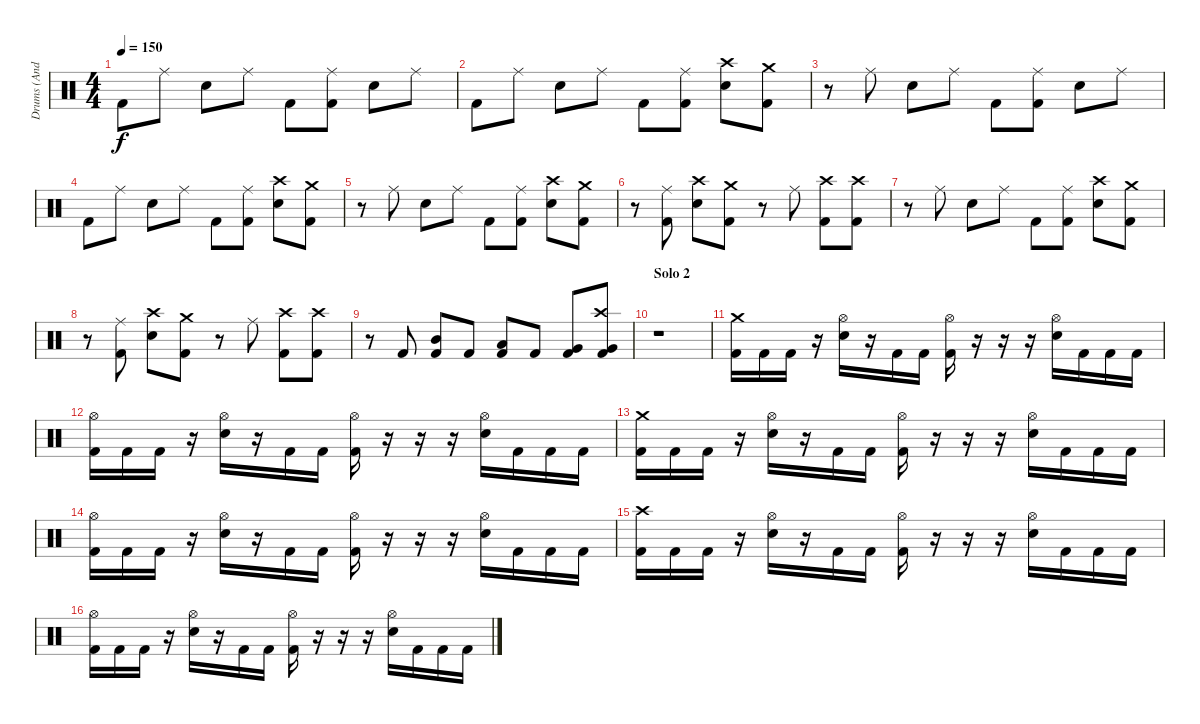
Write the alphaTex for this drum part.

\track ("Drums (Andy C)" "Drums (And") {instrument percussion}
\staff {score}
\articulation defaults
\ts (4 4)
\tempo 150
\clef neutral
\ks c "Kick (hit) 2".8{dy f} "Ride (middle)".8 "Electric Snare (hit)".8 "Ride (middle)".8 "Kick (hit) 2".8
("Ride (middle)" "Kick (hit) 2").8 "Electric Snare (hit)".8 "Ride (middle)".8 |
"Kick (hit) 2".8 "Ride (middle)".8 "Electric Snare (hit)".8 "Ride (middle)".8 "Kick (hit) 2".8 ("Ride (middle)" "Kick (hit) 2").8 ("Crash high (hit)" "Electric Snare (hit)").8 ("Crash medium (hit)" "Kick (hit) 2").8 |
r.8 "Ride (middle)".8 "Electric Snare (hit)".8 "Ride (middle)".8 "Kick (hit) 2".8 ("Ride (middle)" "Kick (hit) 2").8 "Electric Snare (hit)".8 "Ride (middle)".8 |
"Kick (hit) 2".8 "Ride (middle)".8 "Electric Snare (hit)".8 "Ride (middle)".8 "Kick (hit) 2".8 ("Ride (middle)" "Kick (hit) 2").8 ("Crash high (hit)" "Electric Snare (hit)").8 ("Crash medium (hit)" "Kick (hit) 2").8 |
r.8 "Ride (middle)".8 "Electric Snare (hit)".8 "Ride (middle)".8 "Kick (hit) 2".8 ("Ride (middle)" "Kick (hit) 2").8 ("Crash high (hit)" "Electric Snare (hit)").8 ("Crash medium (hit)" "Kick (hit) 2").8 |
r.8 ("Ride (middle)" "Kick (hit) 2").8 ("Crash high (hit)" "Electric Snare (hit)").8 ("Crash medium (hit)" "Kick (hit) 2").8 r.8 "Ride (middle)".8 ("Crash high (hit)" "Kick (hit) 2").8 ("Crash high (hit)" "Kick (hit) 2").8 |
r.8 "Ride (middle)".8 "Electric Snare (hit)".8 "Ride (middle)".8 "Kick (hit) 2".8 ("Ride (middle)" "Kick (hit) 2").8 ("Crash high (hit)" "Electric Snare (hit)").8 ("Crash medium (hit)" "Kick (hit) 2").8 |
r.8 ("Ride (middle)" "Kick (hit) 2").8 ("Crash high (hit)" "Electric Snare (hit)").8 ("Crash medium (hit)" "Kick (hit) 2").8 r.8 "Ride (middle)".8 ("Crash high (hit)" "Kick (hit) 2").8 ("Crash high (hit)" "Kick (hit) 2").8 |
r.8 "Kick (hit) 2".8 ("Mid Tom (hit)" "Kick (hit) 2").8 "Kick (hit) 2".8 ("Low Tom (hit)" "Kick (hit) 2").8 "Kick (hit) 2".8 ("Very Low Tom (hit)" "Kick (hit) 2").8 ("Crash high (hit)" "Very Low Tom (hit)" "Kick (hit) 2").8 |
\section ("" "Solo 2")
r.1 |
("Crash medium (hit)" "Kick (hit) 2").16 "Kick (hit) 2".16 "Kick (hit) 2".16 r.16 ("Hi-Hat (open)" "Electric Snare (hit)").16 r.16 "Kick (hit) 2".16 "Kick (hit) 2".16 ("Hi-Hat (open)" "Kick (hit) 2").16 r.16 r.16 r.16 ("Hi-Hat (open)" "Electric Snare (hit)").16 "Kick (hit) 2".16 "Kick (hit) 2".16 "Kick (hit) 2".16 |
("Hi-Hat (open)" "Kick (hit) 2").16 "Kick (hit) 2".16 "Kick (hit) 2".16 r.16 ("Hi-Hat (open)" "Electric Snare (hit)").16 r.16 "Kick (hit) 2".16 "Kick (hit) 2".16 ("Hi-Hat (open)" "Kick (hit) 2").16 r.16 r.16 r.16 ("Hi-Hat (open)" "Electric Snare (hit)").16 "Kick (hit) 2".16 "Kick (hit) 2".16 "Kick (hit) 2".16 |
("Crash medium (hit)" "Kick (hit) 2").16 "Kick (hit) 2".16 "Kick (hit) 2".16 r.16 ("Hi-Hat (open)" "Electric Snare (hit)").16 r.16 "Kick (hit) 2".16 "Kick (hit) 2".16 ("Hi-Hat (open)" "Kick (hit) 2").16 r.16 r.16 r.16 ("Hi-Hat (open)" "Electric Snare (hit)").16 "Kick (hit) 2".16 "Kick (hit) 2".16 "Kick (hit) 2".16 |
("Hi-Hat (open)" "Kick (hit) 2").16 "Kick (hit) 2".16 "Kick (hit) 2".16 r.16 ("Hi-Hat (open)" "Electric Snare (hit)").16 r.16 "Kick (hit) 2".16 "Kick (hit) 2".16 ("Hi-Hat (open)" "Kick (hit) 2").16 r.16 r.16 r.16 ("Hi-Hat (open)" "Electric Snare (hit)").16 "Kick (hit) 2".16 "Kick (hit) 2".16 "Kick (hit) 2".16 |
("Crash high (hit)" "Kick (hit) 2").16 "Kick (hit) 2".16 "Kick (hit) 2".16 r.16 ("Hi-Hat (open)" "Electric Snare (hit)").16 r.16 "Kick (hit) 2".16 "Kick (hit) 2".16 ("Hi-Hat (open)" "Kick (hit) 2").16 r.16 r.16 r.16 ("Hi-Hat (open)" "Electric Snare (hit)").16 "Kick (hit) 2".16 "Kick (hit) 2".16 "Kick (hit) 2".16 |
("Hi-Hat (open)" "Kick (hit) 2").16 "Kick (hit) 2".16 "Kick (hit) 2".16 r.16 ("Hi-Hat (open)" "Electric Snare (hit)").16 r.16 "Kick (hit) 2".16 "Kick (hit) 2".16 ("Hi-Hat (open)" "Kick (hit) 2").16 r.16 r.16 r.16 ("Hi-Hat (open)" "Electric Snare (hit)").16 "Kick (hit) 2".16 "Kick (hit) 2".16 "Kick (hit) 2".16
